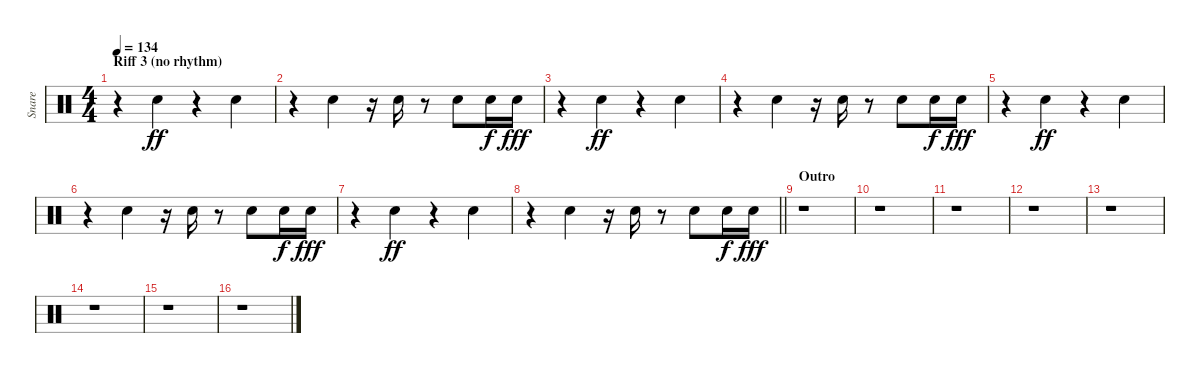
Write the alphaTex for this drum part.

\track ("Snare" "Snare") {instrument percussion}
\staff {score}
\articulation defaults
\ts (4 4)
\section ("" "Riff 3 (no rhythm)")
\tempo 134
\clef neutral
\ks c
r.4{dy ff} "Snare (hit) 2".4 r.4 "Snare (hit) 2".4 |
r.4 "Snare (hit) 2".4 r.16 "Snare (hit) 2".16 r.8 "Snare (hit) 2".8 "Snare (hit) 2".16{dy f} "Snare (hit) 2".16{dy fff} |
r.4 "Snare (hit) 2".4{dy ff} r.4 "Snare (hit) 2".4 |
r.4 "Snare (hit) 2".4 r.16 "Snare (hit) 2".16 r.8 "Snare (hit) 2".8 "Snare (hit) 2".16{dy f} "Snare (hit) 2".16{dy fff} |
r.4 "Snare (hit) 2".4{dy ff} r.4 "Snare (hit) 2".4 |
r.4 "Snare (hit) 2".4 r.16 "Snare (hit) 2".16 r.8 "Snare (hit) 2".8 "Snare (hit) 2".16{dy f} "Snare (hit) 2".16{dy fff} |
r.4 "Snare (hit) 2".4{dy ff} r.4 "Snare (hit) 2".4 |
\barLineRight lightlight
r.4 "Snare (hit) 2".4 r.16 "Snare (hit) 2".16 r.8 "Snare (hit) 2".8 "Snare (hit) 2".16{dy f} "Snare (hit) 2".16{dy fff} |
\section ("" "Outro")
r.1 |
r.1 |
r.1 |
r.1 |
r.1 |
r.1 |
r.1 |
r.1
